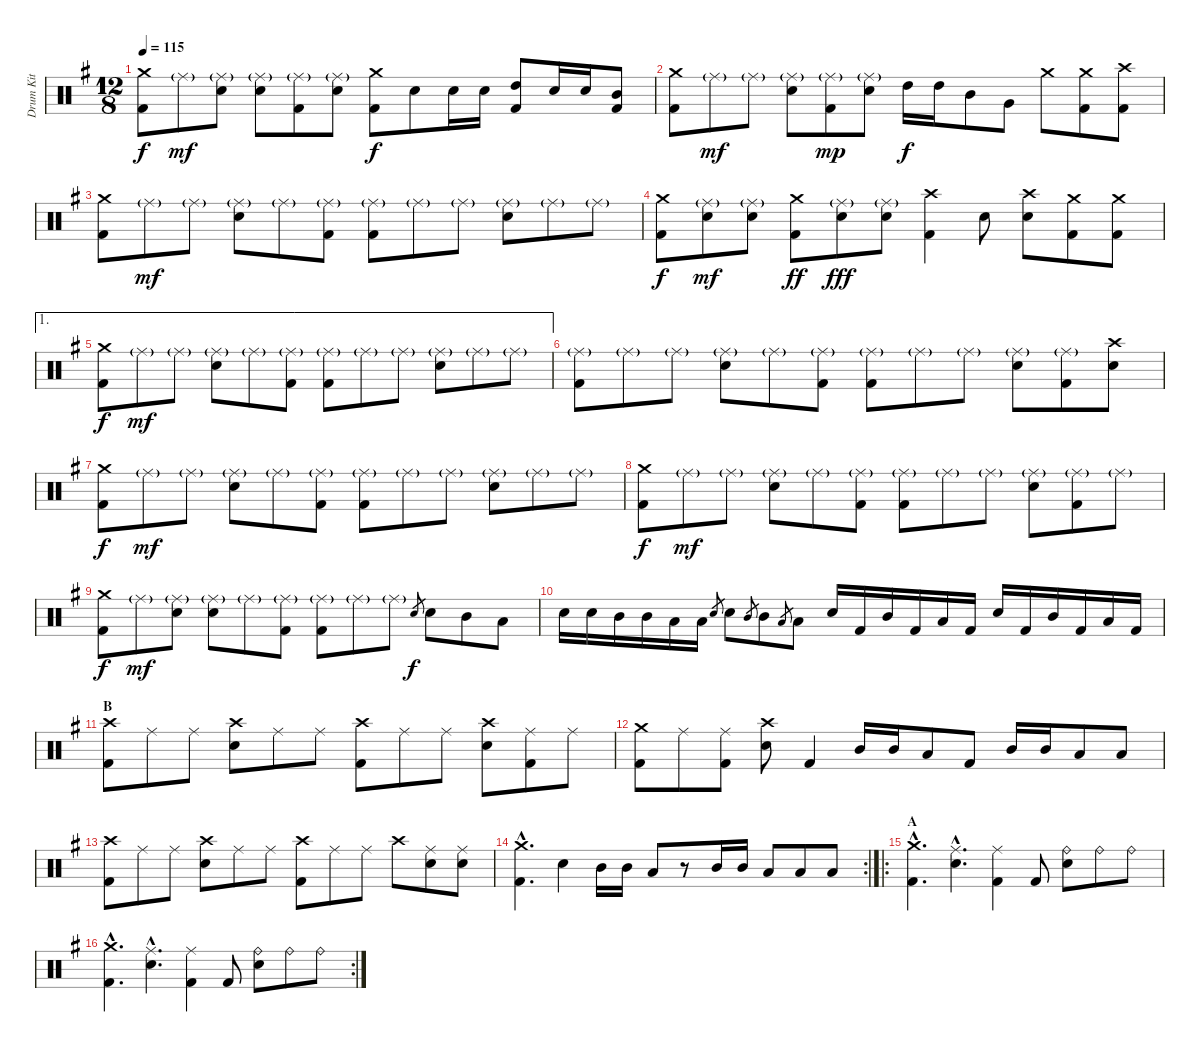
\track ("Drum Kit" "Drum Kit") {instrument percussion}
\staff {score}
\articulation defaults
\ts (12 8)
\tempo 115
\clef neutral
\ks g
("Crash medium (hit)" "Kick (hit) 2").8{dy f} "Ride (middle)"{g}.8{dy mf} ("Ride (middle)"{g} "Electric Snare (hit)").8 ("Ride (middle)"{g} "Electric Snare (hit)").8 ("Ride (middle)"{g} "Kick (hit) 2").8 ("Ride (middle)"{g} "Electric Snare (hit)").8 ("Crash medium (hit)" "Kick (hit) 2").8{dy f} "Electric Snare (hit)".8 "Electric Snare (hit)".16 "Electric Snare (hit)".16 ("High Tom (hit)" "Kick (hit) 2").8 "Electric Snare (hit)".16 "Electric Snare (hit)".16 ("Mid Tom (hit)" "Kick (hit) 2").8 |
("Crash medium (hit)" "Kick (hit) 2").8 "Ride (middle)"{g}.8{dy mf} "Ride (middle)"{g}.8 ("Ride (middle)"{g} "Electric Snare (hit)").8 ("Ride (middle)"{g} "Kick (hit) 2").8{dy mp} ("Ride (middle)"{g} "Electric Snare (hit)").8 "High Tom (hit)".16{dy f} "High Tom (hit)".16 "Mid Tom (hit)".8 "Very Low Tom (hit)".8 "Crash medium (hit)".8 ("Crash medium (hit)" "Kick (hit) 2").8 ("Crash high (hit)" "Kick (hit) 2").8 |
("Crash medium (hit)" "Kick (hit) 2").8 "Ride (middle)"{g}.8{dy mf} "Ride (middle)"{g}.8 ("Ride (middle)"{g} "Electric Snare (hit)").8 "Ride (middle)"{g}.8 ("Ride (middle)"{g} "Kick (hit) 2").8 ("Ride (middle)"{g} "Kick (hit) 2").8 "Ride (middle)"{g}.8 "Ride (middle)"{g}.8 ("Ride (middle)"{g} "Electric Snare (hit)").8 "Ride (middle)"{g}.8 "Ride (middle)"{g}.8 |
("Crash medium (hit)" "Kick (hit) 2").8{dy f} ("Ride (middle)"{g} "Electric Snare (hit)").8{dy mf} ("Ride (middle)"{g} "Electric Snare (hit)").8 ("Crash medium (hit)" "Kick (hit) 2").8{dy ff} ("Ride (middle)"{g} "Electric Snare (hit)").8{dy fff} ("Ride (middle)"{g} "Electric Snare (hit)").8 ("Crash high (hit)" "Kick (hit) 2").4 "Electric Snare (hit)".8 ("Crash high (hit)" "Electric Snare (hit)").8 ("Crash medium (hit)" "Kick (hit) 2").8 ("Crash medium (hit)" "Kick (hit) 2").8 |
\ae 1
("Crash medium (hit)" "Kick (hit) 2").8{dy f} "Ride (middle)"{g}.8{dy mf} "Ride (middle)"{g}.8 ("Ride (middle)"{g} "Electric Snare (hit)").8 "Ride (middle)"{g}.8 ("Ride (middle)"{g} "Kick (hit) 2").8 ("Ride (middle)"{g} "Kick (hit) 2").8 "Ride (middle)"{g}.8 "Ride (middle)"{g}.8 ("Ride (middle)"{g} "Electric Snare (hit)").8 "Ride (middle)"{g}.8 "Ride (middle)"{g}.8 |
("Ride (middle)"{g} "Kick (hit) 2").8 "Ride (middle)"{g}.8 "Ride (middle)"{g}.8 ("Ride (middle)"{g} "Electric Snare (hit)").8 "Ride (middle)"{g}.8 ("Ride (middle)"{g} "Kick (hit) 2").8 ("Ride (middle)"{g} "Kick (hit) 2").8 "Ride (middle)"{g}.8 "Ride (middle)"{g}.8 ("Ride (middle)"{g} "Electric Snare (hit)").8 ("Ride (middle)"{g} "Kick (hit) 2").8 ("Crash high (hit)" "Electric Snare (hit)").8 |
("Crash medium (hit)" "Kick (hit) 2").8{dy f} "Ride (middle)"{g}.8{dy mf} "Ride (middle)"{g}.8 ("Ride (middle)"{g} "Electric Snare (hit)").8 "Ride (middle)"{g}.8 ("Ride (middle)"{g} "Kick (hit) 2").8 ("Ride (middle)"{g} "Kick (hit) 2").8 "Ride (middle)"{g}.8 "Ride (middle)"{g}.8 ("Ride (middle)"{g} "Electric Snare (hit)").8 "Ride (middle)"{g}.8 "Ride (middle)"{g}.8 |
("Crash medium (hit)" "Kick (hit) 2").8{dy f} "Ride (middle)"{g}.8{dy mf} "Ride (middle)"{g}.8 ("Ride (middle)"{g} "Electric Snare (hit)").8 "Ride (middle)"{g}.8 ("Ride (middle)"{g} "Kick (hit) 2").8 ("Ride (middle)"{g} "Kick (hit) 2").8 "Ride (middle)"{g}.8 "Ride (middle)"{g}.8 ("Ride (middle)"{g} "Electric Snare (hit)").8 ("Ride (middle)"{g} "Kick (hit) 2").8 "Ride (middle)"{g}.8 |
("Crash medium (hit)" "Kick (hit) 2").8{dy f} "Ride (middle)"{g}.8{dy mf} ("Ride (middle)"{g} "Electric Snare (hit)").8 ("Ride (middle)"{g} "Electric Snare (hit)").8 "Ride (middle)"{g}.8 ("Ride (middle)"{g} "Kick (hit) 2").8 ("Ride (middle)"{g} "Kick (hit) 2").8 "Ride (middle)"{g}.8 "Ride (middle)"{g}.8 "Electric Snare (hit)".8{gr dy f} "Electric Snare (hit)".8 "Mid Tom (hit)".8 "Low Tom (hit)".8 |
"Electric Snare (hit)".16 "Electric Snare (hit)".16 "Mid Tom (hit)".16 "Mid Tom (hit)".16 "Low Tom (hit)".16 "Low Tom (hit)".16 "Electric Snare (hit)".8{gr} "Electric Snare (hit)".8 "Mid Tom (hit)".8{gr} "Mid Tom (hit)".8 "Low Tom (hit)".8{gr} "Low Tom (hit)".8 "Electric Snare (hit)".16 "Kick (hit) 2".16 "Mid Tom (hit)".16 "Kick (hit) 2".16 "Low Tom (hit)".16 "Kick (hit) 2".16 "Electric Snare (hit)".16 "Kick (hit) 2".16 "Mid Tom (hit)".16 "Kick (hit) 2".16 "Low Tom (hit)".16 "Kick (hit) 2".16 |
\section ("" "B")
("Crash high (hit)" "Kick (hit) 2").8 "Ride (middle)".8 "Ride (middle)".8 ("Crash high (hit)" "Electric Snare (hit)").8 "Ride (middle)".8 "Ride (middle)".8 ("Crash high (hit)" "Kick (hit) 2").8 "Ride (middle)".8 "Ride (middle)".8 ("Crash high (hit)" "Electric Snare (hit)").8 ("Ride (middle)" "Kick (hit) 2").8 "Ride (middle)".8 |
("Crash medium (hit)" "Kick (hit) 2").8 "Ride (middle)".8 ("Ride (middle)" "Kick (hit) 2").8 ("Crash high (hit)" "Electric Snare (hit)").8 "Kick (hit) 2".4 "Mid Tom (hit)".16 "Mid Tom (hit)".16 "Low Tom (hit)".8 "Kick (hit) 2".8 "Mid Tom (hit)".16 "Mid Tom (hit)".16 "Low Tom (hit)".8 "Low Tom (hit)".8 |
("Crash high (hit)" "Kick (hit) 2").8 "Ride (middle)".8 "Ride (middle)".8 ("Crash high (hit)" "Electric Snare (hit)").8 "Ride (middle)".8 "Ride (middle)".8 ("Crash high (hit)" "Kick (hit) 2").8 "Ride (middle)".8 "Ride (middle)".8 "Crash high (hit)".8 ("Ride (middle)" "Electric Snare (hit)").8 ("Ride (middle)" "Electric Snare (hit)").8 |
\rc 2
("Crash medium (hit)"{hac} "Kick (hit) 2"{hac}).4{d} "Electric Snare (hit)".4 "Mid Tom (hit)".16 "Mid Tom (hit)".16 "Low Tom (hit)".8 r.8 "Mid Tom (hit)".16 "Mid Tom (hit)".16 "Low Tom (hit)".8 "Low Tom (hit)".8 "Low Tom (hit)".8 |
\ro
\section ("" "A")
("Crash medium (hit)"{hac} "Kick (hit) 2"{hac}).4{d} ("Ride (middle)"{hac} "Electric Snare (hit)"{hac}).4{d} ("Ride (middle)" "Kick (hit) 2").4 "Kick (hit) 2".8 ("Ride (bell)" "Electric Snare (hit)").8 "Ride (bell)".8 "Ride (bell)".8 |
\rc 2
("Crash medium (hit)"{hac} "Kick (hit) 2"{hac}).4{d} ("Ride (middle)"{hac} "Electric Snare (hit)"{hac}).4{d} ("Ride (middle)" "Kick (hit) 2").4 "Kick (hit) 2".8 ("Ride (bell)" "Electric Snare (hit)").8 "Ride (bell)".8 "Ride (bell)".8
